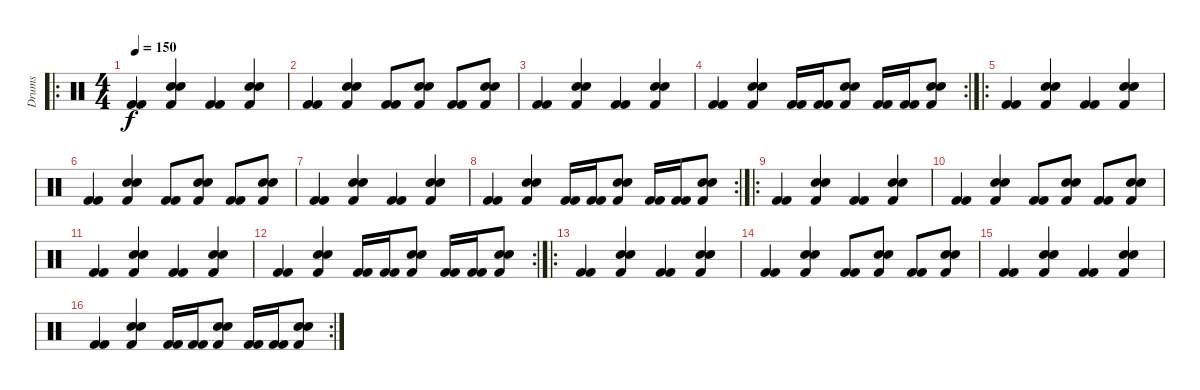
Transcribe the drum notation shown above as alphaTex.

\track ("Drums" "Drums") {instrument percussion}
\staff {score}
\articulation defaults
\ro
\ts (4 4)
\tempo 150
\clef neutral
\ks c
("Kick (hit) 2" "Kick (hit) 2").4{dy f} ("Snare (hit) 2" "Snare (hit) 2" "Kick (hit) 2").4 ("Kick (hit) 2" "Kick (hit) 2").4 ("Snare (hit) 2" "Snare (hit) 2" "Kick (hit) 2").4 |
("Kick (hit) 2" "Kick (hit) 2").4 ("Snare (hit) 2" "Snare (hit) 2" "Kick (hit) 2").4 ("Kick (hit) 2" "Kick (hit) 2").8 ("Snare (hit) 2" "Snare (hit) 2" "Kick (hit) 2").8 ("Kick (hit) 2" "Kick (hit) 2").8 ("Snare (hit) 2" "Snare (hit) 2" "Kick (hit) 2").8 |
("Kick (hit) 2" "Kick (hit) 2").4 ("Snare (hit) 2" "Snare (hit) 2" "Kick (hit) 2").4 ("Kick (hit) 2" "Kick (hit) 2").4 ("Snare (hit) 2" "Snare (hit) 2" "Kick (hit) 2").4 |
\rc 2
("Kick (hit) 2" "Kick (hit) 2").4 ("Snare (hit) 2" "Snare (hit) 2" "Kick (hit) 2").4 ("Kick (hit) 2" "Kick (hit) 2").16 ("Kick (hit) 2" "Kick (hit) 2").16 ("Snare (hit) 2" "Snare (hit) 2" "Kick (hit) 2").8 ("Kick (hit) 2" "Kick (hit) 2").16 ("Kick (hit) 2" "Kick (hit) 2").16 ("Snare (hit) 2" "Snare (hit) 2" "Kick (hit) 2").8 |
\ro
("Kick (hit) 2" "Kick (hit) 2").4 ("Snare (hit) 2" "Snare (hit) 2" "Kick (hit) 2").4 ("Kick (hit) 2" "Kick (hit) 2").4 ("Snare (hit) 2" "Snare (hit) 2" "Kick (hit) 2").4 |
("Kick (hit) 2" "Kick (hit) 2").4 ("Snare (hit) 2" "Snare (hit) 2" "Kick (hit) 2").4 ("Kick (hit) 2" "Kick (hit) 2").8 ("Snare (hit) 2" "Snare (hit) 2" "Kick (hit) 2").8 ("Kick (hit) 2" "Kick (hit) 2").8 ("Snare (hit) 2" "Snare (hit) 2" "Kick (hit) 2").8 |
("Kick (hit) 2" "Kick (hit) 2").4 ("Snare (hit) 2" "Snare (hit) 2" "Kick (hit) 2").4 ("Kick (hit) 2" "Kick (hit) 2").4 ("Snare (hit) 2" "Snare (hit) 2" "Kick (hit) 2").4 |
\rc 2
("Kick (hit) 2" "Kick (hit) 2").4 ("Snare (hit) 2" "Snare (hit) 2" "Kick (hit) 2").4 ("Kick (hit) 2" "Kick (hit) 2").16 ("Kick (hit) 2" "Kick (hit) 2").16 ("Snare (hit) 2" "Snare (hit) 2" "Kick (hit) 2").8 ("Kick (hit) 2" "Kick (hit) 2").16 ("Kick (hit) 2" "Kick (hit) 2").16 ("Snare (hit) 2" "Snare (hit) 2" "Kick (hit) 2").8 |
\ro
("Kick (hit) 2" "Kick (hit) 2").4 ("Snare (hit) 2" "Snare (hit) 2" "Kick (hit) 2").4 ("Kick (hit) 2" "Kick (hit) 2").4 ("Snare (hit) 2" "Snare (hit) 2" "Kick (hit) 2").4 |
("Kick (hit) 2" "Kick (hit) 2").4 ("Snare (hit) 2" "Snare (hit) 2" "Kick (hit) 2").4 ("Kick (hit) 2" "Kick (hit) 2").8 ("Snare (hit) 2" "Snare (hit) 2" "Kick (hit) 2").8 ("Kick (hit) 2" "Kick (hit) 2").8 ("Snare (hit) 2" "Snare (hit) 2" "Kick (hit) 2").8 |
("Kick (hit) 2" "Kick (hit) 2").4 ("Snare (hit) 2" "Snare (hit) 2" "Kick (hit) 2").4 ("Kick (hit) 2" "Kick (hit) 2").4 ("Snare (hit) 2" "Snare (hit) 2" "Kick (hit) 2").4 |
\rc 2
("Kick (hit) 2" "Kick (hit) 2").4 ("Snare (hit) 2" "Snare (hit) 2" "Kick (hit) 2").4 ("Kick (hit) 2" "Kick (hit) 2").16 ("Kick (hit) 2" "Kick (hit) 2").16 ("Snare (hit) 2" "Snare (hit) 2" "Kick (hit) 2").8 ("Kick (hit) 2" "Kick (hit) 2").16 ("Kick (hit) 2" "Kick (hit) 2").16 ("Snare (hit) 2" "Snare (hit) 2" "Kick (hit) 2").8 |
\ro
("Kick (hit) 2" "Kick (hit) 2").4 ("Snare (hit) 2" "Snare (hit) 2" "Kick (hit) 2").4 ("Kick (hit) 2" "Kick (hit) 2").4 ("Snare (hit) 2" "Snare (hit) 2" "Kick (hit) 2").4 |
("Kick (hit) 2" "Kick (hit) 2").4 ("Snare (hit) 2" "Snare (hit) 2" "Kick (hit) 2").4 ("Kick (hit) 2" "Kick (hit) 2").8 ("Snare (hit) 2" "Snare (hit) 2" "Kick (hit) 2").8 ("Kick (hit) 2" "Kick (hit) 2").8 ("Snare (hit) 2" "Snare (hit) 2" "Kick (hit) 2").8 |
("Kick (hit) 2" "Kick (hit) 2").4 ("Snare (hit) 2" "Snare (hit) 2" "Kick (hit) 2").4 ("Kick (hit) 2" "Kick (hit) 2").4 ("Snare (hit) 2" "Snare (hit) 2" "Kick (hit) 2").4 |
\rc 2
("Kick (hit) 2" "Kick (hit) 2").4 ("Snare (hit) 2" "Snare (hit) 2" "Kick (hit) 2").4 ("Kick (hit) 2" "Kick (hit) 2").16 ("Kick (hit) 2" "Kick (hit) 2").16 ("Snare (hit) 2" "Snare (hit) 2" "Kick (hit) 2").8 ("Kick (hit) 2" "Kick (hit) 2").16 ("Kick (hit) 2" "Kick (hit) 2").16 ("Snare (hit) 2" "Snare (hit) 2" "Kick (hit) 2").8
